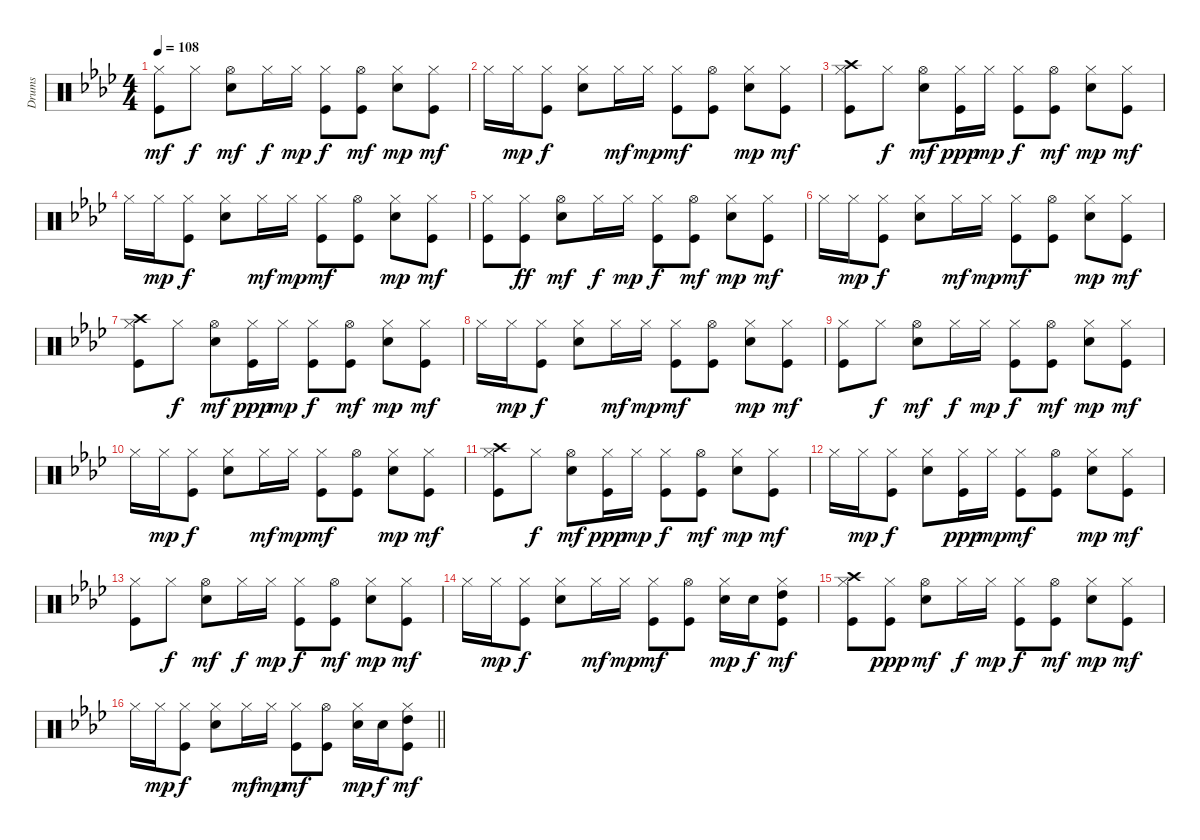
\track ("Drums" "Drums") {instrument percussion}
\staff {score}
\articulation defaults
\ts (4 4)
\tempo 108
\clef neutral
\ks ab
("Kick (hit)" "Hi-Hat (closed)").8{dy mf} "Hi-Hat (closed)".8{dy f} ("Electric Snare (hit)" "Hi-Hat (open)").8{dy mf} "Hi-Hat (closed)".16{dy f} "Hi-Hat (closed)".16{dy mp} ("Kick (hit)" "Hi-Hat (closed)").8{dy f} ("Kick (hit)" "Hi-Hat (open)").8{dy mf} ("Electric Snare (hit)" "Hi-Hat (closed)").8{dy mp} ("Kick (hit)" "Hi-Hat (closed)").8{dy mf} |
"Hi-Hat (closed)".16 "Hi-Hat (closed)".16{dy mp} ("Kick (hit)" "Hi-Hat (closed)").8{dy f} ("Electric Snare (hit)" "Hi-Hat (closed)").8 "Hi-Hat (closed)".16{dy mf} "Hi-Hat (closed)".16{dy mp} ("Kick (hit)" "Hi-Hat (closed)").8{dy mf} ("Kick (hit)" "Hi-Hat (open)").8 ("Electric Snare (hit)" "Hi-Hat (closed)").8{dy mp} ("Kick (hit)" "Hi-Hat (closed)").8{dy mf} |
("Kick (hit)" "Hi-Hat (closed)" "Crash high (hit)").8 "Hi-Hat (closed)".8{dy f} ("Electric Snare (hit)" "Hi-Hat (open)").8{dy mf} ("Hi-Hat (closed)" "Kick (hit)").16{dy ppp} "Hi-Hat (closed)".16{dy mp} ("Kick (hit)" "Hi-Hat (closed)").8{dy f} ("Kick (hit)" "Hi-Hat (open)").8{dy mf} ("Electric Snare (hit)" "Hi-Hat (closed)").8{dy mp} ("Kick (hit)" "Hi-Hat (closed)").8{dy mf} |
"Hi-Hat (closed)".16 "Hi-Hat (closed)".16{dy mp} ("Kick (hit)" "Hi-Hat (closed)").8{dy f} ("Electric Snare (hit)" "Hi-Hat (closed)").8 "Hi-Hat (closed)".16{dy mf} "Hi-Hat (closed)".16{dy mp} ("Kick (hit)" "Hi-Hat (closed)").8{dy mf} ("Kick (hit)" "Hi-Hat (open)").8 ("Electric Snare (hit)" "Hi-Hat (closed)").8{dy mp} ("Kick (hit)" "Hi-Hat (closed)").8{dy mf} |
("Kick (hit)" "Hi-Hat (closed)").8 ("Kick (hit)" "Hi-Hat (closed)").8{dy ff} ("Electric Snare (hit)" "Hi-Hat (open)").8{dy mf} "Hi-Hat (closed)".16{dy f} "Hi-Hat (closed)".16{dy mp} ("Kick (hit)" "Hi-Hat (closed)").8{dy f} ("Kick (hit)" "Hi-Hat (open)").8{dy mf} ("Electric Snare (hit)" "Hi-Hat (closed)").8{dy mp} ("Kick (hit)" "Hi-Hat (closed)").8{dy mf} |
"Hi-Hat (closed)".16 "Hi-Hat (closed)".16{dy mp} ("Kick (hit)" "Hi-Hat (closed)").8{dy f} ("Electric Snare (hit)" "Hi-Hat (closed)").8 "Hi-Hat (closed)".16{dy mf} "Hi-Hat (closed)".16{dy mp} ("Kick (hit)" "Hi-Hat (closed)").8{dy mf} ("Kick (hit)" "Hi-Hat (open)").8 ("Electric Snare (hit)" "Hi-Hat (closed)").8{dy mp} ("Kick (hit)" "Hi-Hat (closed)").8{dy mf} |
("Kick (hit)" "Hi-Hat (closed)" "Crash high (hit)").8 "Hi-Hat (closed)".8{dy f} ("Electric Snare (hit)" "Hi-Hat (open)").8{dy mf} ("Hi-Hat (closed)" "Kick (hit)").16{dy ppp} "Hi-Hat (closed)".16{dy mp} ("Kick (hit)" "Hi-Hat (closed)").8{dy f} ("Kick (hit)" "Hi-Hat (open)").8{dy mf} ("Electric Snare (hit)" "Hi-Hat (closed)").8{dy mp} ("Kick (hit)" "Hi-Hat (closed)").8{dy mf} |
"Hi-Hat (closed)".16 "Hi-Hat (closed)".16{dy mp} ("Kick (hit)" "Hi-Hat (closed)").8{dy f} ("Electric Snare (hit)" "Hi-Hat (closed)").8 "Hi-Hat (closed)".16{dy mf} "Hi-Hat (closed)".16{dy mp} ("Kick (hit)" "Hi-Hat (closed)").8{dy mf} ("Kick (hit)" "Hi-Hat (open)").8 ("Electric Snare (hit)" "Hi-Hat (closed)").8{dy mp} ("Kick (hit)" "Hi-Hat (closed)").8{dy mf} |
("Kick (hit)" "Hi-Hat (closed)").8 "Hi-Hat (closed)".8{dy f} ("Electric Snare (hit)" "Hi-Hat (open)").8{dy mf} "Hi-Hat (closed)".16{dy f} "Hi-Hat (closed)".16{dy mp} ("Kick (hit)" "Hi-Hat (closed)").8{dy f} ("Kick (hit)" "Hi-Hat (open)").8{dy mf} ("Electric Snare (hit)" "Hi-Hat (closed)").8{dy mp} ("Kick (hit)" "Hi-Hat (closed)").8{dy mf} |
"Hi-Hat (closed)".16 "Hi-Hat (closed)".16{dy mp} ("Kick (hit)" "Hi-Hat (closed)").8{dy f} ("Electric Snare (hit)" "Hi-Hat (closed)").8 "Hi-Hat (closed)".16{dy mf} "Hi-Hat (closed)".16{dy mp} ("Kick (hit)" "Hi-Hat (closed)").8{dy mf} ("Kick (hit)" "Hi-Hat (open)").8 ("Electric Snare (hit)" "Hi-Hat (closed)").8{dy mp} ("Kick (hit)" "Hi-Hat (closed)").8{dy mf} |
("Kick (hit)" "Hi-Hat (closed)" "Crash high (hit)").8 "Hi-Hat (closed)".8{dy f} ("Electric Snare (hit)" "Hi-Hat (open)").8{dy mf} ("Hi-Hat (closed)" "Kick (hit)").16{dy ppp} "Hi-Hat (closed)".16{dy mp} ("Kick (hit)" "Hi-Hat (closed)").8{dy f} ("Kick (hit)" "Hi-Hat (open)").8{dy mf} ("Electric Snare (hit)" "Hi-Hat (closed)").8{dy mp} ("Kick (hit)" "Hi-Hat (closed)").8{dy mf} |
"Hi-Hat (closed)".16 "Hi-Hat (closed)".16{dy mp} ("Kick (hit)" "Hi-Hat (closed)").8{dy f} ("Electric Snare (hit)" "Hi-Hat (closed)").8 ("Hi-Hat (closed)" "Kick (hit)").16{dy ppp} "Hi-Hat (closed)".16{dy mp} ("Kick (hit)" "Hi-Hat (closed)").8{dy mf} ("Kick (hit)" "Hi-Hat (open)").8 ("Electric Snare (hit)" "Hi-Hat (closed)").8{dy mp} ("Kick (hit)" "Hi-Hat (closed)").8{dy mf} |
("Kick (hit)" "Hi-Hat (closed)").8 "Hi-Hat (closed)".8{dy f} ("Electric Snare (hit)" "Hi-Hat (open)").8{dy mf} "Hi-Hat (closed)".16{dy f} "Hi-Hat (closed)".16{dy mp} ("Kick (hit)" "Hi-Hat (closed)").8{dy f} ("Kick (hit)" "Hi-Hat (open)").8{dy mf} ("Electric Snare (hit)" "Hi-Hat (closed)").8{dy mp} ("Kick (hit)" "Hi-Hat (closed)").8{dy mf} |
"Hi-Hat (closed)".16 "Hi-Hat (closed)".16{dy mp} ("Kick (hit)" "Hi-Hat (closed)").8{dy f} ("Electric Snare (hit)" "Hi-Hat (closed)").8 "Hi-Hat (closed)".16{dy mf} "Hi-Hat (closed)".16{dy mp} ("Kick (hit)" "Hi-Hat (closed)").8{dy mf} ("Kick (hit)" "Hi-Hat (open)").8 ("Electric Snare (hit)" "Hi-Hat (closed)").16{dy mp} "Electric Snare (hit)".16{dy f} ("Kick (hit)" "Hi-Hat (closed)" "High Tom (hit)").8{dy mf} |
("Kick (hit)" "Hi-Hat (closed)" "Crash high (hit)").8 ("Kick (hit)" "Hi-Hat (closed)").8{dy ppp} ("Electric Snare (hit)" "Hi-Hat (open)").8{dy mf} "Hi-Hat (closed)".16{dy f} "Hi-Hat (closed)".16{dy mp} ("Kick (hit)" "Hi-Hat (closed)").8{dy f} ("Kick (hit)" "Hi-Hat (open)").8{dy mf} ("Electric Snare (hit)" "Hi-Hat (closed)").8{dy mp} ("Kick (hit)" "Hi-Hat (closed)").8{dy mf} |
\barLineRight lightlight "Hi-Hat (closed)".16 "Hi-Hat (closed)".16{dy mp}
("Kick (hit)" "Hi-Hat (closed)").8{dy f} ("Electric Snare (hit)" "Hi-Hat (closed)").8 "Hi-Hat (closed)".16{dy mf} "Hi-Hat (closed)".16{dy mp} ("Kick (hit)" "Hi-Hat (closed)").8{dy mf} ("Kick (hit)" "Hi-Hat (open)").8 ("Electric Snare (hit)" "Hi-Hat (closed)").16{dy mp} "Electric Snare (hit)".16{dy f} ("Kick (hit)" "Hi-Hat (closed)" "High Tom (hit)").8{dy mf}
